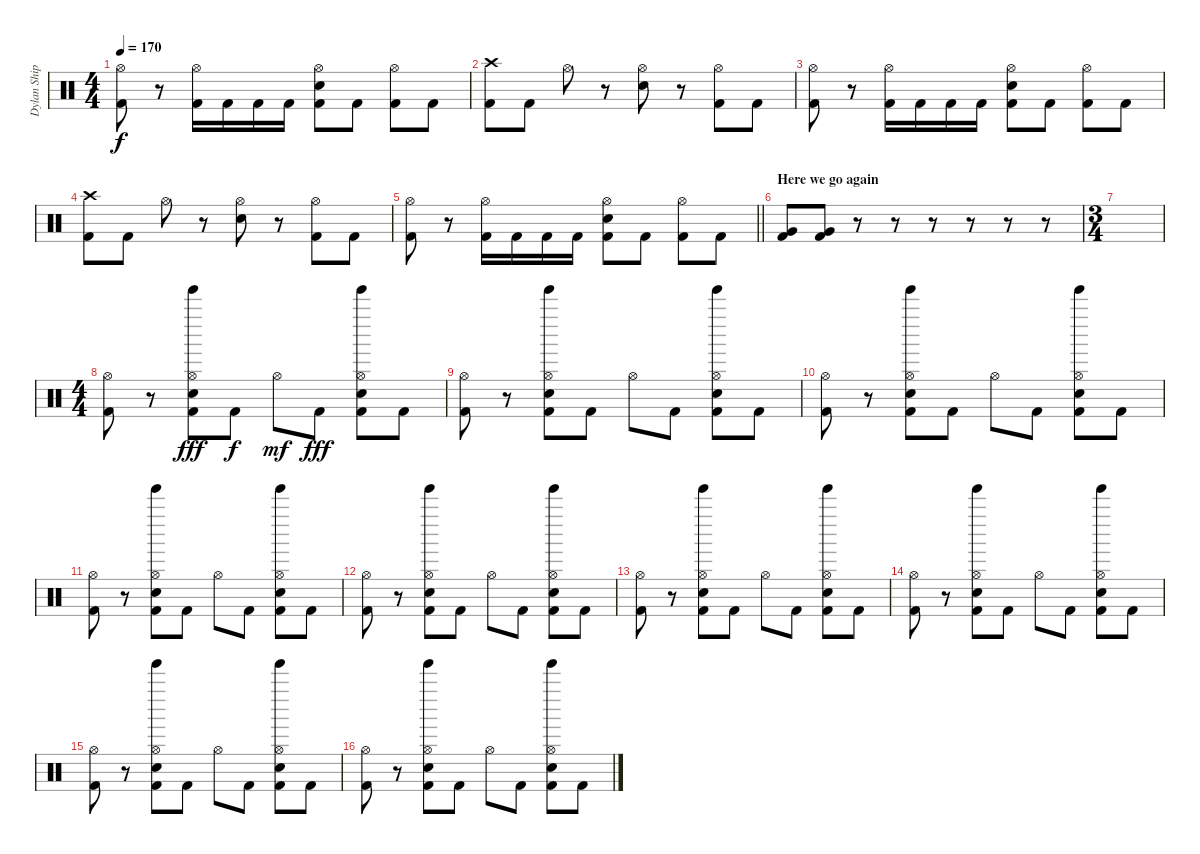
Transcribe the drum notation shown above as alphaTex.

\track ("Dylan Shippey" "Dylan Ship") {instrument percussion}
\staff {score}
\articulation defaults
\ts (4 4)
\tempo 170
\clef neutral
\ks c
("Hi-Hat (open)" "Kick (hit) 2").8{dy f} r.8 ("Hi-Hat (open)" "Kick (hit) 2").16 "Kick (hit) 2".16 "Kick (hit) 2".16 "Kick (hit) 2".16 ("Hi-Hat (open)" "Electric Snare (hit)" "Kick (hit) 2").8 "Kick (hit) 2".8 ("Hi-Hat (open)" "Kick (hit) 2").8 "Kick (hit) 2".8 |
("Crash high (hit)" "Kick (hit) 2").8 "Kick (hit) 2".8 "Hi-Hat (open)".8 r.8 ("Hi-Hat (open)" "Electric Snare (hit)").8 r.8 ("Hi-Hat (open)" "Kick (hit) 2").8 "Kick (hit) 2".8 |
("Hi-Hat (open)" "Kick (hit) 2").8 r.8 ("Hi-Hat (open)" "Kick (hit) 2").16 "Kick (hit) 2".16 "Kick (hit) 2".16 "Kick (hit) 2".16 ("Hi-Hat (open)" "Electric Snare (hit)" "Kick (hit) 2").8 "Kick (hit) 2".8 ("Hi-Hat (open)" "Kick (hit) 2").8 "Kick (hit) 2".8 |
("Crash high (hit)" "Kick (hit) 2").8 "Kick (hit) 2".8 "Hi-Hat (open)".8 r.8 ("Hi-Hat (open)" "Electric Snare (hit)").8 r.8 ("Hi-Hat (open)" "Kick (hit) 2").8 "Kick (hit) 2".8 |
\barLineRight lightlight
("Hi-Hat (open)" "Kick (hit) 2").8 r.8 ("Hi-Hat (open)" "Kick (hit) 2").16 "Kick (hit) 2".16 "Kick (hit) 2".16 "Kick (hit) 2".16 ("Hi-Hat (open)" "Electric Snare (hit)" "Kick (hit) 2").8 "Kick (hit) 2".8 ("Hi-Hat (open)" "Kick (hit) 2").8 "Kick (hit) 2".8 |
\section ("" "Here we go again")
("Very Low Tom (hit)" "Kick (hit) 2").8 ("Very Low Tom (hit)" "Kick (hit) 2").8 r.8 r.8 r.8 r.8 r.8 r.8 |
\ts (3 4)
|
\ts (4 4)
("Hi-Hat (open)" "Kick (hit) 2").8 r.8 ("Tinkle Bell (hit)" "Electric Snare (hit)" "Hi-Hat (open)" "Kick (hit) 2").8{dy fff} "Kick (hit) 2".8{dy f} "Hi-Hat (open)".8{dy mf} "Kick (hit) 2".8{dy fff} ("Tinkle Bell (hit)" "Electric Snare (hit)" "Hi-Hat (open)" "Kick (hit) 2").8 "Kick (hit) 2".8 |
("Hi-Hat (open)" "Kick (hit) 2").8 r.8 ("Tinkle Bell (hit)" "Electric Snare (hit)" "Hi-Hat (open)" "Kick (hit) 2").8 "Kick (hit) 2".8 "Hi-Hat (open)".8 "Kick (hit) 2".8 ("Tinkle Bell (hit)" "Electric Snare (hit)" "Hi-Hat (open)" "Kick (hit) 2").8 "Kick (hit) 2".8 |
("Hi-Hat (open)" "Kick (hit) 2").8 r.8 ("Tinkle Bell (hit)" "Electric Snare (hit)" "Hi-Hat (open)" "Kick (hit) 2").8 "Kick (hit) 2".8 "Hi-Hat (open)".8 "Kick (hit) 2".8 ("Tinkle Bell (hit)" "Electric Snare (hit)" "Hi-Hat (open)" "Kick (hit) 2").8 "Kick (hit) 2".8 |
("Hi-Hat (open)" "Kick (hit) 2").8 r.8 ("Tinkle Bell (hit)" "Electric Snare (hit)" "Hi-Hat (open)" "Kick (hit) 2").8 "Kick (hit) 2".8 "Hi-Hat (open)".8 "Kick (hit) 2".8 ("Tinkle Bell (hit)" "Electric Snare (hit)" "Hi-Hat (open)" "Kick (hit) 2").8 "Kick (hit) 2".8 |
("Hi-Hat (open)" "Kick (hit) 2").8 r.8 ("Tinkle Bell (hit)" "Electric Snare (hit)" "Hi-Hat (open)" "Kick (hit) 2").8 "Kick (hit) 2".8 "Hi-Hat (open)".8 "Kick (hit) 2".8 ("Tinkle Bell (hit)" "Electric Snare (hit)" "Hi-Hat (open)" "Kick (hit) 2").8 "Kick (hit) 2".8 |
("Hi-Hat (open)" "Kick (hit) 2").8 r.8 ("Tinkle Bell (hit)" "Electric Snare (hit)" "Hi-Hat (open)" "Kick (hit) 2").8 "Kick (hit) 2".8 "Hi-Hat (open)".8 "Kick (hit) 2".8 ("Tinkle Bell (hit)" "Electric Snare (hit)" "Hi-Hat (open)" "Kick (hit) 2").8 "Kick (hit) 2".8 |
("Hi-Hat (open)" "Kick (hit) 2").8 r.8 ("Tinkle Bell (hit)" "Electric Snare (hit)" "Hi-Hat (open)" "Kick (hit) 2").8 "Kick (hit) 2".8 "Hi-Hat (open)".8 "Kick (hit) 2".8 ("Tinkle Bell (hit)" "Electric Snare (hit)" "Hi-Hat (open)" "Kick (hit) 2").8 "Kick (hit) 2".8 |
("Hi-Hat (open)" "Kick (hit) 2").8 r.8 ("Tinkle Bell (hit)" "Electric Snare (hit)" "Hi-Hat (open)" "Kick (hit) 2").8 "Kick (hit) 2".8 "Hi-Hat (open)".8 "Kick (hit) 2".8 ("Tinkle Bell (hit)" "Electric Snare (hit)" "Hi-Hat (open)" "Kick (hit) 2").8 "Kick (hit) 2".8 |
("Hi-Hat (open)" "Kick (hit) 2").8 r.8 ("Tinkle Bell (hit)" "Electric Snare (hit)" "Hi-Hat (open)" "Kick (hit) 2").8 "Kick (hit) 2".8 "Hi-Hat (open)".8 "Kick (hit) 2".8 ("Tinkle Bell (hit)" "Electric Snare (hit)" "Hi-Hat (open)" "Kick (hit) 2").8 "Kick (hit) 2".8
